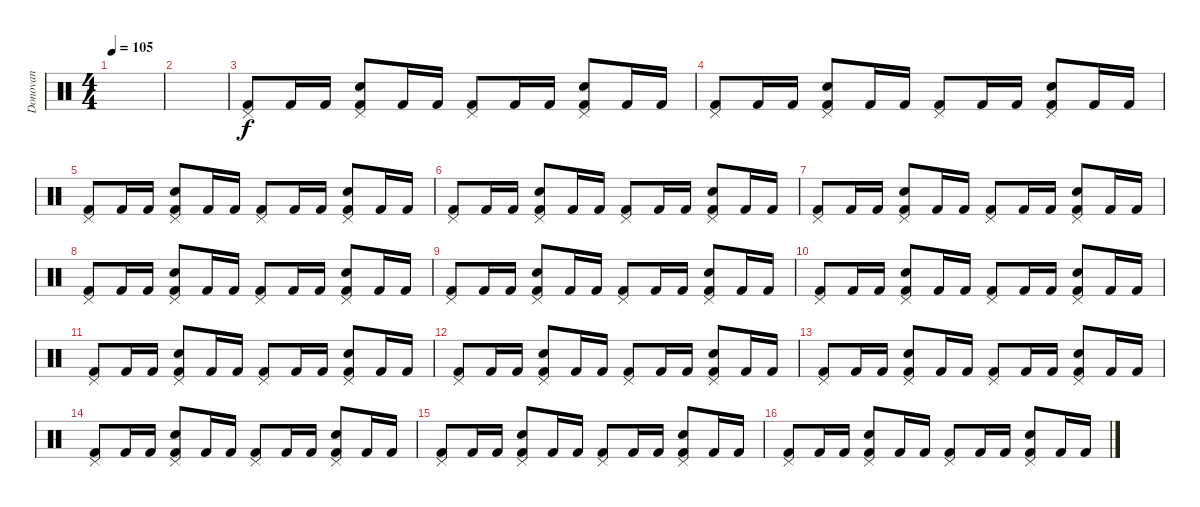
\track ("Donovan" "Donovan") {instrument percussion}
\staff {score}
\articulation defaults
\ts (4 4)
\tempo 105
\clef neutral
\ks c
|
|
("Pedal Hi-Hat (hit)" "Kick (hit) 2").8{dy f} "Kick (hit) 2".16 "Kick (hit) 2".16 ("Pedal Hi-Hat (hit)" "Electric Snare (hit)" "Kick (hit) 2").8 "Kick (hit) 2".16 "Kick (hit) 2".16 ("Pedal Hi-Hat (hit)" "Kick (hit) 2").8 "Kick (hit) 2".16 "Kick (hit) 2".16 ("Pedal Hi-Hat (hit)" "Electric Snare (hit)" "Kick (hit) 2").8 "Kick (hit) 2".16 "Kick (hit) 2".16 |
("Pedal Hi-Hat (hit)" "Kick (hit) 2").8 "Kick (hit) 2".16 "Kick (hit) 2".16 ("Pedal Hi-Hat (hit)" "Electric Snare (hit)" "Kick (hit) 2").8 "Kick (hit) 2".16 "Kick (hit) 2".16 ("Pedal Hi-Hat (hit)" "Kick (hit) 2").8 "Kick (hit) 2".16 "Kick (hit) 2".16 ("Pedal Hi-Hat (hit)" "Electric Snare (hit)" "Kick (hit) 2").8 "Kick (hit) 2".16 "Kick (hit) 2".16 |
("Pedal Hi-Hat (hit)" "Kick (hit) 2").8 "Kick (hit) 2".16 "Kick (hit) 2".16 ("Pedal Hi-Hat (hit)" "Electric Snare (hit)" "Kick (hit) 2").8 "Kick (hit) 2".16 "Kick (hit) 2".16 ("Pedal Hi-Hat (hit)" "Kick (hit) 2").8 "Kick (hit) 2".16 "Kick (hit) 2".16 ("Pedal Hi-Hat (hit)" "Electric Snare (hit)" "Kick (hit) 2").8 "Kick (hit) 2".16 "Kick (hit) 2".16 |
("Pedal Hi-Hat (hit)" "Kick (hit) 2").8 "Kick (hit) 2".16 "Kick (hit) 2".16 ("Pedal Hi-Hat (hit)" "Electric Snare (hit)" "Kick (hit) 2").8 "Kick (hit) 2".16 "Kick (hit) 2".16 ("Pedal Hi-Hat (hit)" "Kick (hit) 2").8 "Kick (hit) 2".16 "Kick (hit) 2".16 ("Pedal Hi-Hat (hit)" "Electric Snare (hit)" "Kick (hit) 2").8 "Kick (hit) 2".16 "Kick (hit) 2".16 |
("Pedal Hi-Hat (hit)" "Kick (hit) 2").8 "Kick (hit) 2".16 "Kick (hit) 2".16 ("Pedal Hi-Hat (hit)" "Electric Snare (hit)" "Kick (hit) 2").8 "Kick (hit) 2".16 "Kick (hit) 2".16 ("Pedal Hi-Hat (hit)" "Kick (hit) 2").8 "Kick (hit) 2".16 "Kick (hit) 2".16 ("Pedal Hi-Hat (hit)" "Electric Snare (hit)" "Kick (hit) 2").8 "Kick (hit) 2".16 "Kick (hit) 2".16 |
("Pedal Hi-Hat (hit)" "Kick (hit) 2").8 "Kick (hit) 2".16 "Kick (hit) 2".16 ("Pedal Hi-Hat (hit)" "Electric Snare (hit)" "Kick (hit) 2").8 "Kick (hit) 2".16 "Kick (hit) 2".16 ("Pedal Hi-Hat (hit)" "Kick (hit) 2").8 "Kick (hit) 2".16 "Kick (hit) 2".16 ("Pedal Hi-Hat (hit)" "Electric Snare (hit)" "Kick (hit) 2").8 "Kick (hit) 2".16 "Kick (hit) 2".16 |
("Pedal Hi-Hat (hit)" "Kick (hit) 2").8 "Kick (hit) 2".16 "Kick (hit) 2".16 ("Pedal Hi-Hat (hit)" "Electric Snare (hit)" "Kick (hit) 2").8 "Kick (hit) 2".16 "Kick (hit) 2".16 ("Pedal Hi-Hat (hit)" "Kick (hit) 2").8 "Kick (hit) 2".16 "Kick (hit) 2".16 ("Pedal Hi-Hat (hit)" "Electric Snare (hit)" "Kick (hit) 2").8 "Kick (hit) 2".16 "Kick (hit) 2".16 |
("Pedal Hi-Hat (hit)" "Kick (hit) 2").8 "Kick (hit) 2".16 "Kick (hit) 2".16 ("Pedal Hi-Hat (hit)" "Electric Snare (hit)" "Kick (hit) 2").8 "Kick (hit) 2".16 "Kick (hit) 2".16 ("Pedal Hi-Hat (hit)" "Kick (hit) 2").8 "Kick (hit) 2".16 "Kick (hit) 2".16 ("Pedal Hi-Hat (hit)" "Electric Snare (hit)" "Kick (hit) 2").8 "Kick (hit) 2".16 "Kick (hit) 2".16 |
("Pedal Hi-Hat (hit)" "Kick (hit) 2").8 "Kick (hit) 2".16 "Kick (hit) 2".16 ("Pedal Hi-Hat (hit)" "Electric Snare (hit)" "Kick (hit) 2").8 "Kick (hit) 2".16 "Kick (hit) 2".16 ("Pedal Hi-Hat (hit)" "Kick (hit) 2").8 "Kick (hit) 2".16 "Kick (hit) 2".16 ("Pedal Hi-Hat (hit)" "Electric Snare (hit)" "Kick (hit) 2").8 "Kick (hit) 2".16 "Kick (hit) 2".16 |
("Pedal Hi-Hat (hit)" "Kick (hit) 2").8 "Kick (hit) 2".16 "Kick (hit) 2".16 ("Pedal Hi-Hat (hit)" "Electric Snare (hit)" "Kick (hit) 2").8 "Kick (hit) 2".16 "Kick (hit) 2".16 ("Pedal Hi-Hat (hit)" "Kick (hit) 2").8 "Kick (hit) 2".16 "Kick (hit) 2".16 ("Pedal Hi-Hat (hit)" "Electric Snare (hit)" "Kick (hit) 2").8 "Kick (hit) 2".16 "Kick (hit) 2".16 |
("Pedal Hi-Hat (hit)" "Kick (hit) 2").8 "Kick (hit) 2".16 "Kick (hit) 2".16 ("Pedal Hi-Hat (hit)" "Electric Snare (hit)" "Kick (hit) 2").8 "Kick (hit) 2".16 "Kick (hit) 2".16 ("Pedal Hi-Hat (hit)" "Kick (hit) 2").8 "Kick (hit) 2".16 "Kick (hit) 2".16 ("Pedal Hi-Hat (hit)" "Electric Snare (hit)" "Kick (hit) 2").8 "Kick (hit) 2".16 "Kick (hit) 2".16 |
("Pedal Hi-Hat (hit)" "Kick (hit) 2").8 "Kick (hit) 2".16 "Kick (hit) 2".16 ("Pedal Hi-Hat (hit)" "Electric Snare (hit)" "Kick (hit) 2").8 "Kick (hit) 2".16 "Kick (hit) 2".16 ("Pedal Hi-Hat (hit)" "Kick (hit) 2").8 "Kick (hit) 2".16 "Kick (hit) 2".16 ("Pedal Hi-Hat (hit)" "Electric Snare (hit)" "Kick (hit) 2").8 "Kick (hit) 2".16 "Kick (hit) 2".16 |
("Pedal Hi-Hat (hit)" "Kick (hit) 2").8 "Kick (hit) 2".16 "Kick (hit) 2".16 ("Pedal Hi-Hat (hit)" "Electric Snare (hit)" "Kick (hit) 2").8 "Kick (hit) 2".16 "Kick (hit) 2".16 ("Pedal Hi-Hat (hit)" "Kick (hit) 2").8 "Kick (hit) 2".16 "Kick (hit) 2".16 ("Pedal Hi-Hat (hit)" "Electric Snare (hit)" "Kick (hit) 2").8 "Kick (hit) 2".16 "Kick (hit) 2".16 |
("Pedal Hi-Hat (hit)" "Kick (hit) 2").8 "Kick (hit) 2".16 "Kick (hit) 2".16 ("Pedal Hi-Hat (hit)" "Electric Snare (hit)" "Kick (hit) 2").8 "Kick (hit) 2".16 "Kick (hit) 2".16 ("Pedal Hi-Hat (hit)" "Kick (hit) 2").8 "Kick (hit) 2".16 "Kick (hit) 2".16 ("Pedal Hi-Hat (hit)" "Electric Snare (hit)" "Kick (hit) 2").8 "Kick (hit) 2".16 "Kick (hit) 2".16
